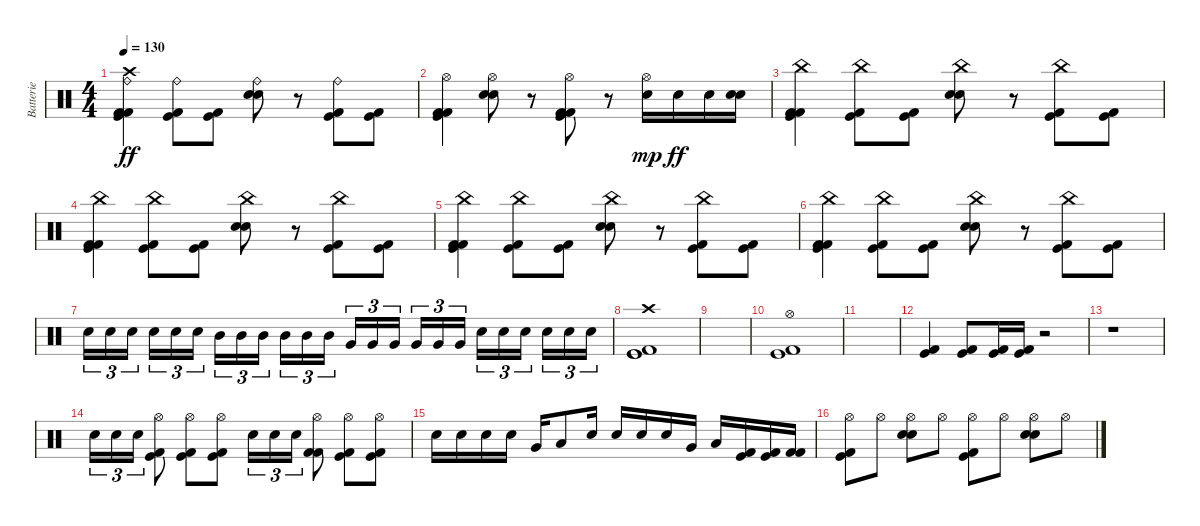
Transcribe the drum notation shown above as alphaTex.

\track ("Batterie" "Batterie") {instrument percussion}
\staff {score}
\articulation defaults
\ts (4 4)
\tempo 130
\clef neutral
\ks c
("Ride (bell)" "Crash high (hit)" "Kick (hit)" "Kick (hit) 2" "Kick (hit) 2").4{dy ff} ("Ride (bell)" "Kick (hit) 2" "Kick (hit)").8 ("Kick (hit)" "Kick (hit) 2").8 ("Ride (bell)" "Electric Snare (hit)" "Electric Snare (hit)").8 r.8 ("Ride (bell)" "Kick (hit)" "Kick (hit) 2").8 ("Kick (hit)" "Kick (hit) 2").8 |
("Hi-Hat (open)" "Kick (hit) 2" "Kick (hit) 2" "Kick (hit)").4 ("Hi-Hat (open)" "Electric Snare (hit)" "Electric Snare (hit)").8 r.8 ("Hi-Hat (open)" "Kick (hit) 2" "Kick (hit) 2" "Kick (hit)").8 r.8 ("Hi-Hat (open)" "Electric Snare (hit)").16{dy mp} "Electric Snare (hit)".16{dy ff} "Electric Snare (hit)".16 ("Electric Snare (hit)" "Electric Snare (hit)").16 |
("China (hit)" "Kick (hit)" "Kick (hit) 2" "Kick (hit) 2").4 ("China (hit)" "Kick (hit) 2" "Kick (hit)").8 ("Kick (hit)" "Kick (hit) 2").8 ("China (hit)" "Electric Snare (hit)" "Electric Snare (hit)").8 r.8 ("China (hit)" "Kick (hit)" "Kick (hit) 2").8 ("Kick (hit)" "Kick (hit) 2").8 |
("China (hit)" "Kick (hit)" "Kick (hit) 2" "Kick (hit) 2").4 ("China (hit)" "Kick (hit) 2" "Kick (hit)").8 ("Kick (hit)" "Kick (hit) 2").8 ("China (hit)" "Electric Snare (hit)" "Electric Snare (hit)").8 r.8 ("China (hit)" "Kick (hit)" "Kick (hit) 2").8 ("Kick (hit)" "Kick (hit) 2").8 |
("China (hit)" "Kick (hit)" "Kick (hit) 2" "Kick (hit) 2").4 ("China (hit)" "Kick (hit) 2" "Kick (hit)").8 ("Kick (hit)" "Kick (hit) 2").8 ("China (hit)" "Electric Snare (hit)" "Electric Snare (hit)").8 r.8 ("China (hit)" "Kick (hit)" "Kick (hit) 2").8 ("Kick (hit)" "Kick (hit) 2").8 |
("China (hit)" "Kick (hit)" "Kick (hit) 2" "Kick (hit) 2").4 ("China (hit)" "Kick (hit) 2" "Kick (hit)").8 ("Kick (hit)" "Kick (hit) 2").8 ("China (hit)" "Electric Snare (hit)" "Electric Snare (hit)").8 r.8 ("China (hit)" "Kick (hit)" "Kick (hit) 2").8 ("Kick (hit)" "Kick (hit) 2").8 |
"Electric Snare (hit)".16{tu (3 2)} "Electric Snare (hit)".16{tu (3 2)} "Electric Snare (hit)".16{tu (3 2)} "Electric Snare (hit)".16{tu (3 2)} "Electric Snare (hit)".16{tu (3 2)} "Electric Snare (hit)".16{tu (3 2)} "Mid Tom (hit)".16{tu (3 2)} "Mid Tom (hit)".16{tu (3 2)} "Mid Tom (hit)".16{tu (3 2)} "Mid Tom (hit)".16{tu (3 2)} "Mid Tom (hit)".16{tu (3 2)} "Mid Tom (hit)".16{tu (3 2)} "Very Low Tom (hit)".16{tu (3 2)} "Very Low Tom (hit)".16{tu (3 2)} "Very Low Tom (hit)".16{tu (3 2)} "Very Low Tom (hit)".16{tu (3 2)} "Very Low Tom (hit)".16{tu (3 2)} "Very Low Tom (hit)".16{tu (3 2)} "Electric Snare (hit)".16{tu (3 2)} "Electric Snare (hit)".16{tu (3 2)} "Electric Snare (hit)".16{tu (3 2)} "Electric Snare (hit)".16{tu (3 2)} "Electric Snare (hit)".16{tu (3 2)} "Electric Snare (hit)".16{tu (3 2)} |
("Crash high (hit)" "Kick (hit)" "Kick (hit) 2" "Kick (hit)").1 |
|
("Hi-Hat (open)" "Kick (hit) 2" "Kick (hit)").1 |
|
("Kick (hit) 2" "Kick (hit)").4 ("Kick (hit)" "Kick (hit) 2").8 ("Kick (hit)" "Kick (hit) 2").16 ("Kick (hit)" "Kick (hit) 2").16 r.2 |
r.1 |
"Electric Snare (hit)".16{tu (3 2)} "Electric Snare (hit)".16{tu (3 2)} "Electric Snare (hit)".16{tu (3 2)} ("Hi-Hat (open)" "Kick (hit)" "Kick (hit) 2").8 ("Hi-Hat (open)" "Kick (hit) 2" "Kick (hit)").8 ("Hi-Hat (open)" "Kick (hit)" "Kick (hit) 2").8 "Electric Snare (hit)".16{tu (3 2)} "Electric Snare (hit)".16{tu (3 2)} "Electric Snare (hit)".16{tu (3 2)} ("Hi-Hat (open)" "Kick (hit) 2" "Kick (hit) 2").8 ("Hi-Hat (open)" "Kick (hit) 2" "Kick (hit)").8 ("Hi-Hat (open)" "Kick (hit)" "Kick (hit) 2").8 |
"Electric Snare (hit)".16 "Electric Snare (hit)".16 "Electric Snare (hit)".16 "Electric Snare (hit)".16 "Very Low Tom (hit)".16 "Low Floor Tom (hit)".8 "Electric Snare (hit)".16 "Snare (hit) 2".16 "Electric Snare (hit)".16 "Snare (hit) 2".16 "Very Low Tom (hit)".16 "Low Floor Tom (hit)".16 ("Kick (hit) 2" "Kick (hit)").16 ("Kick (hit) 2" "Kick (hit)").16 ("Kick (hit) 2" "Kick (hit) 2").16 |
("Hi-Hat (open)" "Kick (hit) 2" "Kick (hit)").8 "Hi-Hat (open)".8 ("Hi-Hat (open)" "Electric Snare (hit)" "Electric Snare (hit)").8 "Hi-Hat (open)".8 ("Hi-Hat (open)" "Kick (hit)" "Kick (hit) 2").8 "Hi-Hat (open)".8 ("Hi-Hat (open)" "Electric Snare (hit)" "Electric Snare (hit)").8 "Hi-Hat (open)".8
